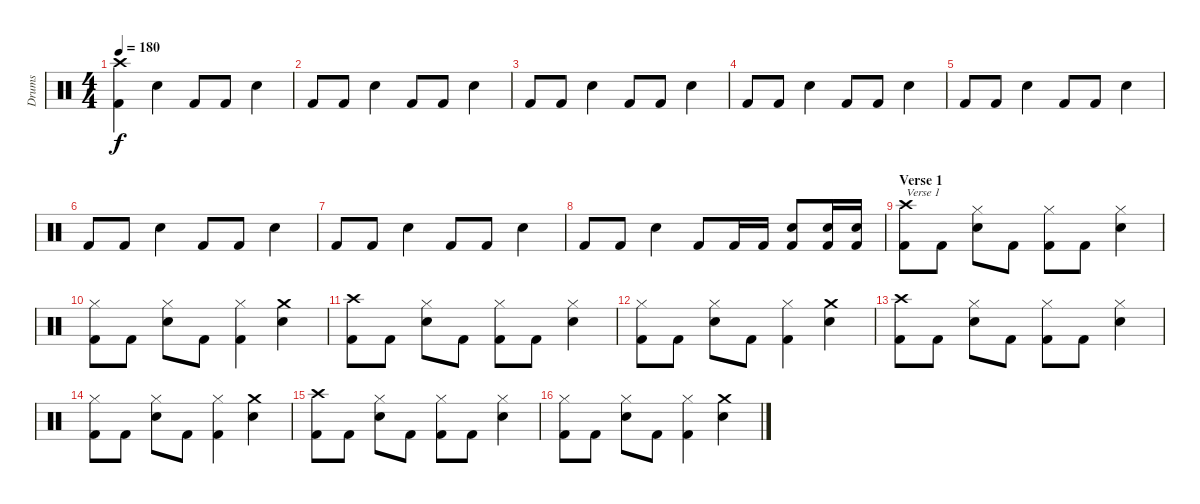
\track ("Drums" "Drums") {instrument percussion}
\staff {score}
\articulation defaults
\ts (4 4)
\tempo 180
\clef neutral
\ks c
("Kick (hit) 2" "Crash high (hit)").4{dy f} "Snare (hit) 2".4 "Kick (hit) 2".8 "Kick (hit) 2".8 "Snare (hit) 2".4 |
"Kick (hit) 2".8 "Kick (hit) 2".8 "Snare (hit) 2".4 "Kick (hit) 2".8 "Kick (hit) 2".8 "Snare (hit) 2".4 |
"Kick (hit) 2".8 "Kick (hit) 2".8 "Snare (hit) 2".4 "Kick (hit) 2".8 "Kick (hit) 2".8 "Snare (hit) 2".4 |
"Kick (hit) 2".8 "Kick (hit) 2".8 "Snare (hit) 2".4 "Kick (hit) 2".8 "Kick (hit) 2".8 "Snare (hit) 2".4 |
"Kick (hit) 2".8 "Kick (hit) 2".8 "Snare (hit) 2".4 "Kick (hit) 2".8 "Kick (hit) 2".8 "Snare (hit) 2".4 |
"Kick (hit) 2".8 "Kick (hit) 2".8 "Snare (hit) 2".4 "Kick (hit) 2".8 "Kick (hit) 2".8 "Snare (hit) 2".4 |
"Kick (hit) 2".8 "Kick (hit) 2".8 "Snare (hit) 2".4 "Kick (hit) 2".8 "Kick (hit) 2".8 "Snare (hit) 2".4 |
"Kick (hit) 2".8 "Kick (hit) 2".8 "Snare (hit) 2".4 "Kick (hit) 2".8 "Kick (hit) 2".16 "Kick (hit) 2".16 ("Kick (hit) 2" "Snare (hit) 2").8 ("Kick (hit) 2" "Snare (hit) 2").16 ("Kick (hit) 2" "Snare (hit) 2").16 |
\section ("" "Verse 1")
("Kick (hit) 2" "Crash high (hit)").8{txt "Verse 1"} "Kick (hit) 2".8 ("Snare (hit) 2" "Hi-Hat (closed)").8 "Kick (hit) 2".8 ("Kick (hit) 2" "Hi-Hat (closed)").8 "Kick (hit) 2".8 ("Snare (hit) 2" "Hi-Hat (closed)").4 |
("Kick (hit) 2" "Hi-Hat (closed)").8 "Kick (hit) 2".8 ("Snare (hit) 2" "Hi-Hat (closed)").8 "Kick (hit) 2".8 ("Kick (hit) 2" "Hi-Hat (closed)").4 ("Snare (hit) 2" "Crash medium (hit)").4 |
("Kick (hit) 2" "Crash high (hit)").8 "Kick (hit) 2".8 ("Snare (hit) 2" "Hi-Hat (closed)").8 "Kick (hit) 2".8 ("Kick (hit) 2" "Hi-Hat (closed)").8 "Kick (hit) 2".8 ("Snare (hit) 2" "Hi-Hat (closed)").4 |
("Kick (hit) 2" "Hi-Hat (closed)").8 "Kick (hit) 2".8 ("Snare (hit) 2" "Hi-Hat (closed)").8 "Kick (hit) 2".8 ("Kick (hit) 2" "Hi-Hat (closed)").4 ("Snare (hit) 2" "Crash medium (hit)").4 |
("Kick (hit) 2" "Crash high (hit)").8 "Kick (hit) 2".8 ("Snare (hit) 2" "Hi-Hat (closed)").8 "Kick (hit) 2".8 ("Kick (hit) 2" "Hi-Hat (closed)").8 "Kick (hit) 2".8 ("Snare (hit) 2" "Hi-Hat (closed)").4 |
("Kick (hit) 2" "Hi-Hat (closed)").8 "Kick (hit) 2".8 ("Snare (hit) 2" "Hi-Hat (closed)").8 "Kick (hit) 2".8 ("Kick (hit) 2" "Hi-Hat (closed)").4 ("Snare (hit) 2" "Crash medium (hit)").4 |
("Kick (hit) 2" "Crash high (hit)").8 "Kick (hit) 2".8 ("Snare (hit) 2" "Hi-Hat (closed)").8 "Kick (hit) 2".8 ("Kick (hit) 2" "Hi-Hat (closed)").8 "Kick (hit) 2".8 ("Snare (hit) 2" "Hi-Hat (closed)").4 |
("Kick (hit) 2" "Hi-Hat (closed)").8 "Kick (hit) 2".8 ("Snare (hit) 2" "Hi-Hat (closed)").8 "Kick (hit) 2".8 ("Kick (hit) 2" "Hi-Hat (closed)").4 ("Snare (hit) 2" "Crash medium (hit)").4
